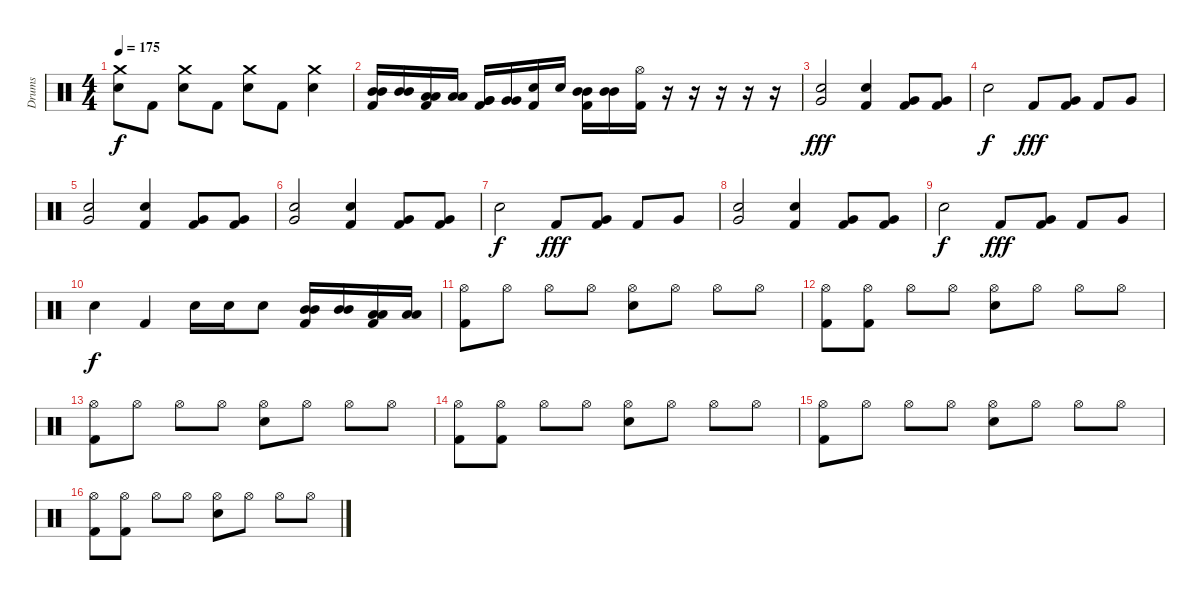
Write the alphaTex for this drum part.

\track ("Drums" "Drums") {instrument percussion}
\staff {score}
\articulation defaults
\ts (4 4)
\tempo 175
\clef neutral
\ks c
("Electric Snare (hit)" "Crash medium (hit)").8{dy f} "Kick (hit) 2".8 ("Electric Snare (hit)" "Crash medium (hit)").8 "Kick (hit) 2".8 ("Electric Snare (hit)" "Crash medium (hit)").8 "Kick (hit) 2".8 ("Electric Snare (hit)" "Crash medium (hit)").4 |
("Kick (hit) 2" "Mid Tom (hit)" "Mid Tom (hit)").16 ("Mid Tom (hit)" "Mid Tom (hit)").16 ("Kick (hit) 2" "Low Tom (hit)" "Low Tom (hit)").16 ("Low Tom (hit)" "Low Tom (hit)").16 ("Kick (hit) 2" "Very Low Tom (hit)" "Very Low Tom (hit)").16 ("Very Low Tom (hit)" "Very Low Tom (hit)").16 ("Kick (hit) 2" "Electric Snare (hit)").16 "Electric Snare (hit)".16 ("Kick (hit) 2" "Mid Tom (hit)" "Mid Tom (hit)").16 ("Mid Tom (hit)" "Mid Tom (hit)").16 ("Kick (hit) 2" "Hi-Hat (open)").16 r.16 r.16 r.16 r.16 r.16 |
("Very Low Tom (hit)" "Electric Snare (hit)").2{dy fff} ("Hand Clap (hit)" "Kick (hit) 2").4 ("Kick (hit) 2" "Very Low Tom (hit)").8 ("Kick (hit) 2" "Very Low Tom (hit)").8 |
"Electric Snare (hit)".2{dy f} "Kick (hit) 2".8{dy fff} ("Kick (hit) 2" "Very Low Tom (hit)").8 "Kick (hit) 2".8 "Very Low Tom (hit)".8 |
("Very Low Tom (hit)" "Electric Snare (hit)").2 ("Hand Clap (hit)" "Kick (hit) 2").4 ("Kick (hit) 2" "Very Low Tom (hit)").8 ("Kick (hit) 2" "Very Low Tom (hit)").8 |
("Very Low Tom (hit)" "Electric Snare (hit)").2 ("Hand Clap (hit)" "Kick (hit) 2").4 ("Kick (hit) 2" "Very Low Tom (hit)").8 ("Kick (hit) 2" "Very Low Tom (hit)").8 |
"Electric Snare (hit)".2{dy f} "Kick (hit) 2".8{dy fff} ("Kick (hit) 2" "Very Low Tom (hit)").8 "Kick (hit) 2".8 "Very Low Tom (hit)".8 |
("Very Low Tom (hit)" "Electric Snare (hit)").2 ("Hand Clap (hit)" "Kick (hit) 2").4 ("Kick (hit) 2" "Very Low Tom (hit)").8 ("Kick (hit) 2" "Very Low Tom (hit)").8 |
"Electric Snare (hit)".2{dy f} "Kick (hit) 2".8{dy fff} ("Kick (hit) 2" "Very Low Tom (hit)").8 "Kick (hit) 2".8 "Very Low Tom (hit)".8 |
"Electric Snare (hit)".4{dy f} "Kick (hit) 2".4 "Electric Snare (hit)".16 "Electric Snare (hit)".16 "Electric Snare (hit)".8 ("Kick (hit) 2" "Mid Tom (hit)" "Mid Tom (hit)").16 ("Mid Tom (hit)" "Mid Tom (hit)").16 ("Kick (hit) 2" "Low Tom (hit)" "Low Tom (hit)").16 ("Low Tom (hit)" "Low Tom (hit)").16 |
("Kick (hit) 2" "Hi-Hat (open)").8 "Hi-Hat (open)".8 "Hi-Hat (open)".8 "Hi-Hat (open)".8 ("Electric Snare (hit)" "Hi-Hat (open)").8 "Hi-Hat (open)".8 "Hi-Hat (open)".8 "Hi-Hat (open)".8 |
("Kick (hit) 2" "Hi-Hat (open)").8 ("Kick (hit) 2" "Hi-Hat (open)").8 "Hi-Hat (open)".8 "Hi-Hat (open)".8 ("Electric Snare (hit)" "Hi-Hat (open)").8 "Hi-Hat (open)".8 "Hi-Hat (open)".8 "Hi-Hat (open)".8 |
("Kick (hit) 2" "Hi-Hat (open)").8 "Hi-Hat (open)".8 "Hi-Hat (open)".8 "Hi-Hat (open)".8 ("Electric Snare (hit)" "Hi-Hat (open)").8 "Hi-Hat (open)".8 "Hi-Hat (open)".8 "Hi-Hat (open)".8 |
("Kick (hit) 2" "Hi-Hat (open)").8 ("Kick (hit) 2" "Hi-Hat (open)").8 "Hi-Hat (open)".8 "Hi-Hat (open)".8 ("Electric Snare (hit)" "Hi-Hat (open)").8 "Hi-Hat (open)".8 "Hi-Hat (open)".8 "Hi-Hat (open)".8 |
("Kick (hit) 2" "Hi-Hat (open)").8 "Hi-Hat (open)".8 "Hi-Hat (open)".8 "Hi-Hat (open)".8 ("Electric Snare (hit)" "Hi-Hat (open)").8 "Hi-Hat (open)".8 "Hi-Hat (open)".8 "Hi-Hat (open)".8 |
("Kick (hit) 2" "Hi-Hat (open)").8 ("Kick (hit) 2" "Hi-Hat (open)").8 "Hi-Hat (open)".8 "Hi-Hat (open)".8 ("Electric Snare (hit)" "Hi-Hat (open)").8 "Hi-Hat (open)".8 "Hi-Hat (open)".8 "Hi-Hat (open)".8
